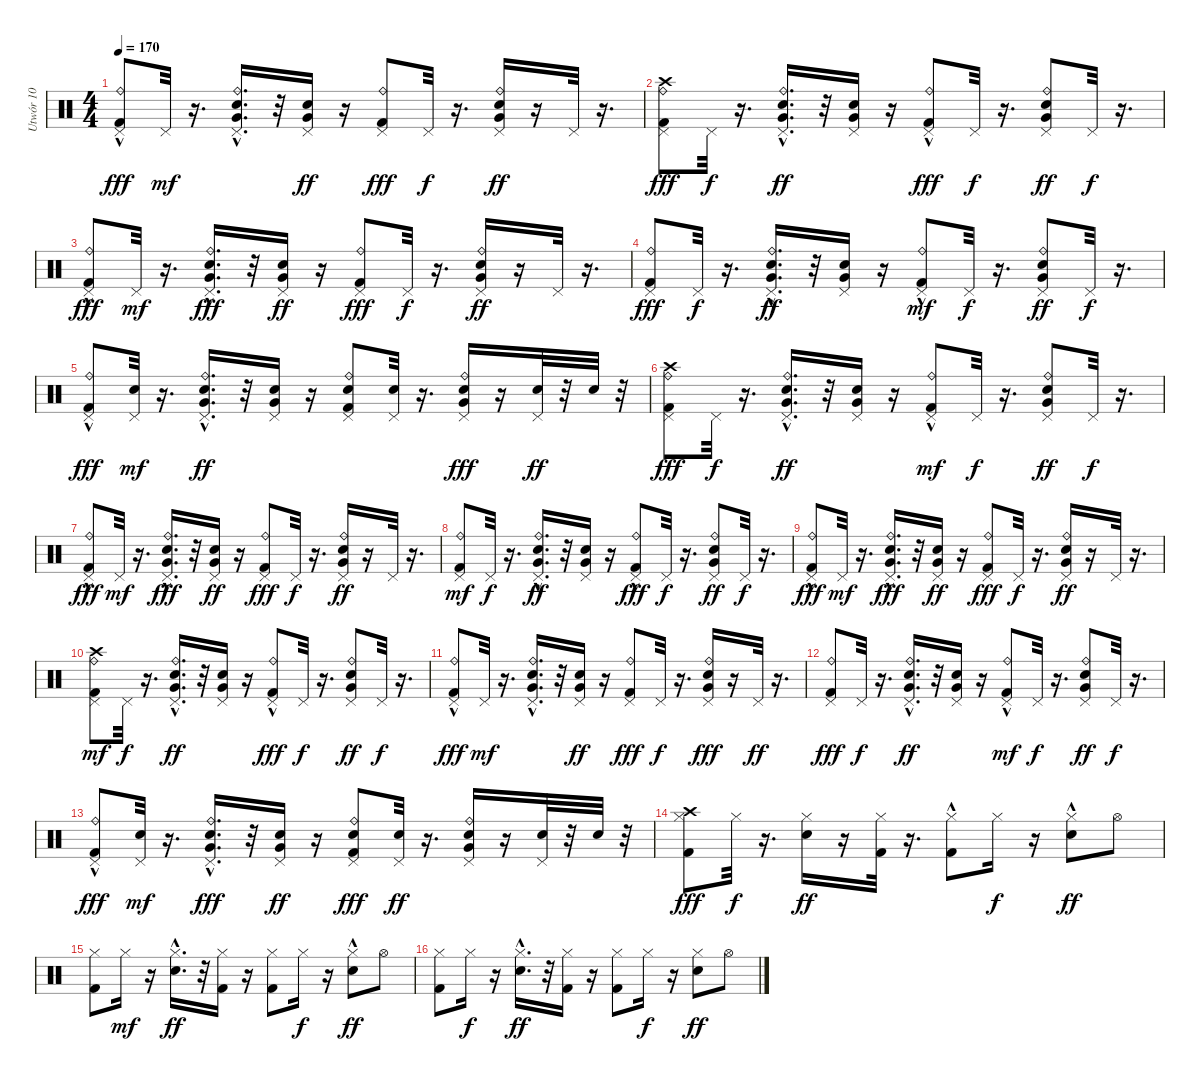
\track ("Utwór 10" "Utwór 10") {instrument percussion}
\staff {score}
\articulation defaults
\ts (4 4)
\tempo 170
\clef neutral
\ks c
("Kick (hit) 2"{hac} "Ride (bell)"{hac} "Pedal Hi-Hat (hit)").8{dy fff} "Pedal Hi-Hat (hit)".32{dy mf} r.16{d} ("Ride (bell)"{hac} "Snare (hit) 2" "Very Low Tom (hit)" "Pedal Hi-Hat (hit)").16{d} r.32 ("Pedal Hi-Hat (hit)" "Very Low Tom (hit)" "Snare (hit) 2").16{dy ff} r.16 ("Ride (bell)" "Kick (hit) 2" "Pedal Hi-Hat (hit)").8{dy fff} "Pedal Hi-Hat (hit)".32{dy f} r.16{d} ("Ride (bell)" "Snare (hit) 2" "Pedal Hi-Hat (hit)" "Very Low Tom (hit)").16{dy ff} r.16 "Pedal Hi-Hat (hit)".32 r.16{d} |
("Crash high (hit)" "Ride (bell)" "Pedal Hi-Hat (hit)" "Kick (hit) 2").8{dy fff} "Pedal Hi-Hat (hit)".32{dy f} r.16{d} ("Ride (bell)"{hac} "Pedal Hi-Hat (hit)" "Snare (hit) 2" "Very Low Tom (hit)").16{d dy ff} r.32 ("Pedal Hi-Hat (hit)" "Very Low Tom (hit)" "Snare (hit) 2").16 r.16 ("Ride (bell)"{hac} "Pedal Hi-Hat (hit)" "Kick (hit) 2").8{dy fff} "Pedal Hi-Hat (hit)".32{dy f} r.16{d} ("Pedal Hi-Hat (hit)" "Ride (bell)" "Snare (hit) 2" "Very Low Tom (hit)").8{dy ff} "Pedal Hi-Hat (hit)".32{dy f} r.16{d} |
("Ride (bell)"{hac} "Kick (hit) 2"{hac} "Pedal Hi-Hat (hit)").8{dy fff} "Pedal Hi-Hat (hit)".32{dy mf} r.16{d} ("Very Low Tom (hit)" "Snare (hit) 2" "Ride (bell)"{hac} "Pedal Hi-Hat (hit)").16{d dy fff} r.32 ("Snare (hit) 2" "Very Low Tom (hit)" "Pedal Hi-Hat (hit)").16{dy ff} r.16 ("Ride (bell)" "Pedal Hi-Hat (hit)" "Kick (hit) 2").8{dy fff} "Pedal Hi-Hat (hit)".32{dy f} r.16{d} ("Ride (bell)" "Snare (hit) 2" "Very Low Tom (hit)" "Pedal Hi-Hat (hit)").16{dy ff} r.16 "Pedal Hi-Hat (hit)".32 r.16{d} |
("Pedal Hi-Hat (hit)" "Kick (hit) 2" "Ride (bell)").8{dy fff} "Pedal Hi-Hat (hit)".32{dy f} r.16{d} ("Very Low Tom (hit)" "Snare (hit) 2" "Ride (bell)"{hac} "Pedal Hi-Hat (hit)").16{d dy ff} r.32 ("Snare (hit) 2" "Pedal Hi-Hat (hit)" "Very Low Tom (hit)").16 r.16 ("Ride (bell)"{hac} "Kick (hit) 2" "Pedal Hi-Hat (hit)").8{dy mf} "Pedal Hi-Hat (hit)".32{dy f} r.16{d} ("Very Low Tom (hit)" "Ride (bell)" "Snare (hit) 2" "Pedal Hi-Hat (hit)").8{dy ff} "Pedal Hi-Hat (hit)".32{dy f} r.16{d} |
("Kick (hit) 2"{hac} "Ride (bell)"{hac} "Pedal Hi-Hat (hit)").8{dy fff} ("Snare (hit) 2" "Pedal Hi-Hat (hit)").32{dy mf} r.16{d} ("Very Low Tom (hit)" "Ride (bell)"{hac} "Pedal Hi-Hat (hit)" "Snare (hit) 2").16{d dy ff} r.32 ("Very Low Tom (hit)" "Snare (hit) 2" "Pedal Hi-Hat (hit)").16 r.16 ("Pedal Hi-Hat (hit)" "Ride (bell)" "Kick (hit) 2" "Snare (hit) 2").8 ("Pedal Hi-Hat (hit)" "Snare (hit) 2").32 r.16{d} ("Very Low Tom (hit)" "Pedal Hi-Hat (hit)" "Snare (hit) 2" "Ride (bell)").16{dy fff} r.16 ("Snare (hit) 2" "Pedal Hi-Hat (hit)").32{dy ff} r.32 "Snare (hit) 2".32 r.32 |
("Ride (bell)" "Pedal Hi-Hat (hit)" "Crash high (hit)" "Kick (hit) 2").8{dy fff} "Pedal Hi-Hat (hit)".32{dy f} r.16{d} ("Ride (bell)"{hac} "Snare (hit) 2" "Very Low Tom (hit)" "Pedal Hi-Hat (hit)").16{d dy ff} r.32 ("Pedal Hi-Hat (hit)" "Snare (hit) 2" "Very Low Tom (hit)").16 r.16 ("Kick (hit) 2" "Ride (bell)"{hac} "Pedal Hi-Hat (hit)").8{dy mf} "Pedal Hi-Hat (hit)".32{dy f} r.16{d} ("Snare (hit) 2" "Ride (bell)" "Pedal Hi-Hat (hit)" "Very Low Tom (hit)").8{dy ff} "Pedal Hi-Hat (hit)".32{dy f} r.16{d} |
("Pedal Hi-Hat (hit)" "Kick (hit) 2"{hac} "Ride (bell)"{hac}).8{dy fff} "Pedal Hi-Hat (hit)".32{dy mf} r.16{d} ("Pedal Hi-Hat (hit)" "Very Low Tom (hit)" "Snare (hit) 2" "Ride (bell)"{hac}).16{d dy fff} r.32 ("Pedal Hi-Hat (hit)" "Very Low Tom (hit)" "Snare (hit) 2").16{dy ff} r.16 ("Pedal Hi-Hat (hit)" "Ride (bell)" "Kick (hit) 2").8{dy fff} "Pedal Hi-Hat (hit)".32{dy f} r.16{d} ("Ride (bell)" "Snare (hit) 2" "Pedal Hi-Hat (hit)" "Very Low Tom (hit)").16{dy ff} r.16 "Pedal Hi-Hat (hit)".32 r.16{d} |
("Ride (bell)" "Kick (hit) 2" "Pedal Hi-Hat (hit)").8{dy mf} "Pedal Hi-Hat (hit)".32{dy f} r.16{d} ("Snare (hit) 2" "Very Low Tom (hit)" "Pedal Hi-Hat (hit)" "Ride (bell)"{hac}).16{d dy ff} r.32 ("Snare (hit) 2" "Very Low Tom (hit)" "Pedal Hi-Hat (hit)").16 r.16 ("Pedal Hi-Hat (hit)" "Ride (bell)"{hac} "Kick (hit) 2").8{dy fff} "Pedal Hi-Hat (hit)".32{dy f} r.16{d} ("Snare (hit) 2" "Ride (bell)" "Very Low Tom (hit)" "Pedal Hi-Hat (hit)").8{dy ff} "Pedal Hi-Hat (hit)".32{dy f} r.16{d} |
("Ride (bell)"{hac} "Pedal Hi-Hat (hit)" "Kick (hit) 2"{hac}).8{dy fff} "Pedal Hi-Hat (hit)".32{dy mf} r.16{d} ("Snare (hit) 2" "Pedal Hi-Hat (hit)" "Very Low Tom (hit)" "Ride (bell)"{hac}).16{d dy fff} r.32 ("Snare (hit) 2" "Pedal Hi-Hat (hit)" "Very Low Tom (hit)").16{dy ff} r.16 ("Pedal Hi-Hat (hit)" "Kick (hit) 2" "Ride (bell)").8{dy fff} "Pedal Hi-Hat (hit)".32{dy f} r.16{d} ("Snare (hit) 2" "Pedal Hi-Hat (hit)" "Ride (bell)" "Very Low Tom (hit)").16{dy ff} r.16 "Pedal Hi-Hat (hit)".32 r.16{d} |
("Kick (hit) 2" "Crash high (hit)" "Ride (bell)" "Pedal Hi-Hat (hit)").8{dy mf} "Pedal Hi-Hat (hit)".32{dy f} r.16{d} ("Very Low Tom (hit)" "Ride (bell)"{hac} "Snare (hit) 2" "Pedal Hi-Hat (hit)").16{d dy ff} r.32 ("Snare (hit) 2" "Pedal Hi-Hat (hit)" "Very Low Tom (hit)").16 r.16 ("Pedal Hi-Hat (hit)" "Ride (bell)"{hac} "Kick (hit) 2").8{dy fff} "Pedal Hi-Hat (hit)".32{dy f} r.16{d} ("Ride (bell)" "Snare (hit) 2" "Pedal Hi-Hat (hit)" "Very Low Tom (hit)").8{dy ff} "Pedal Hi-Hat (hit)".32{dy f} r.16{d} |
("Pedal Hi-Hat (hit)" "Ride (bell)"{hac} "Kick (hit) 2"{hac}).8{dy fff} "Pedal Hi-Hat (hit)".32{dy mf} r.16{d} ("Ride (bell)"{hac} "Pedal Hi-Hat (hit)" "Snare (hit) 2" "Very Low Tom (hit)").16{d} r.32 ("Pedal Hi-Hat (hit)" "Very Low Tom (hit)" "Snare (hit) 2").16{dy ff} r.16 ("Ride (bell)" "Pedal Hi-Hat (hit)" "Kick (hit) 2").8{dy fff} "Pedal Hi-Hat (hit)".32{dy f} r.16{d} ("Very Low Tom (hit)" "Ride (bell)" "Pedal Hi-Hat (hit)" "Snare (hit) 2").16{dy fff} r.16 "Pedal Hi-Hat (hit)".32{dy ff} r.16{d} |
("Ride (bell)" "Pedal Hi-Hat (hit)" "Kick (hit) 2").8{dy fff} "Pedal Hi-Hat (hit)".32{dy f} r.16{d} ("Very Low Tom (hit)" "Pedal Hi-Hat (hit)" "Snare (hit) 2" "Ride (bell)"{hac}).16{d dy ff} r.32 ("Very Low Tom (hit)" "Pedal Hi-Hat (hit)" "Snare (hit) 2").16 r.16 ("Kick (hit) 2" "Ride (bell)"{hac} "Pedal Hi-Hat (hit)").8{dy mf} "Pedal Hi-Hat (hit)".32{dy f} r.16{d} ("Ride (bell)" "Very Low Tom (hit)" "Snare (hit) 2" "Pedal Hi-Hat (hit)").8{dy ff} "Pedal Hi-Hat (hit)".32{dy f} r.16{d} |
("Pedal Hi-Hat (hit)" "Ride (bell)"{hac} "Kick (hit) 2"{hac}).8{dy fff} ("Snare (hit) 2" "Pedal Hi-Hat (hit)").32{dy mf} r.16{d} ("Snare (hit) 2" "Very Low Tom (hit)" "Pedal Hi-Hat (hit)" "Ride (bell)"{hac}).16{d dy fff} r.32 ("Pedal Hi-Hat (hit)" "Snare (hit) 2" "Very Low Tom (hit)").16{dy ff} r.16 ("Pedal Hi-Hat (hit)" "Kick (hit) 2" "Snare (hit) 2" "Ride (bell)").8{dy fff} ("Pedal Hi-Hat (hit)" "Snare (hit) 2").32{dy ff} r.16{d} ("Ride (bell)" "Pedal Hi-Hat (hit)" "Snare (hit) 2" "Very Low Tom (hit)").16 r.16 ("Snare (hit) 2" "Pedal Hi-Hat (hit)").32 r.32 "Snare (hit) 2".32 r.32 |
("Kick (hit) 2" "Hi-Hat (closed)" "Crash high (hit)").8{dy fff} "Hi-Hat (closed)".32{dy f} r.16{d} ("Snare (hit) 2" "Hi-Hat (closed)").16{dy ff} r.16 ("Hi-Hat (closed)" "Kick (hit) 2").32 r.16{d} ("Kick (hit) 2"{hac} "Hi-Hat (closed)").8 "Hi-Hat (closed)".16{dy f} r.16 ("Hi-Hat (closed)"{hac} "Snare (hit) 2").8{dy ff} "Hi-Hat (open)".8 |
("Hi-Hat (closed)" "Kick (hit) 2").8 "Hi-Hat (closed)".16{dy mf} r.16 ("Snare (hit) 2"{hac} "Hi-Hat (closed)").16{d dy ff} r.32 ("Hi-Hat (closed)" "Kick (hit) 2").16 r.16 ("Hi-Hat (closed)" "Kick (hit) 2").8 "Hi-Hat (closed)".16{dy f} r.16 ("Hi-Hat (closed)" "Snare (hit) 2"{hac}).8{dy ff} "Hi-Hat (open)".8 |
("Kick (hit) 2" "Hi-Hat (closed)").8 "Hi-Hat (closed)".16{dy f} r.16 ("Snare (hit) 2"{hac} "Hi-Hat (closed)").16{d dy ff} r.32 ("Kick (hit) 2" "Hi-Hat (closed)").16 r.16 ("Kick (hit) 2" "Hi-Hat (closed)").8 "Hi-Hat (closed)".16{dy f} r.16 ("Snare (hit) 2" "Hi-Hat (closed)").8{dy ff} "Hi-Hat (open)".8
